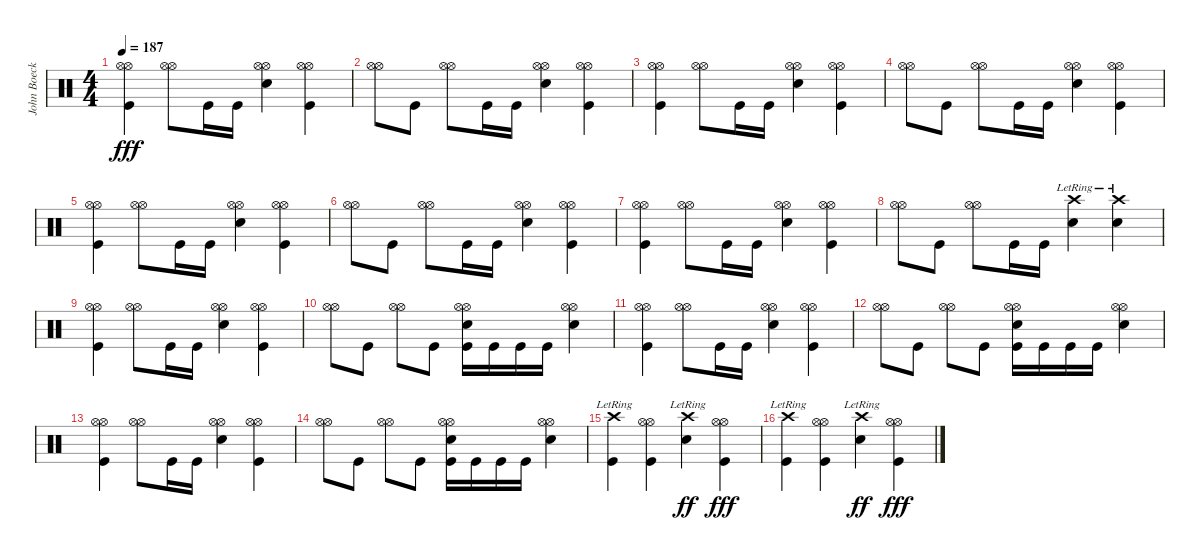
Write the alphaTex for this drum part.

\track ("John Boecklin - Drums" "John Boeck") {instrument percussion}
\staff {score}
\articulation defaults
\ts (4 4)
\tempo 187
\clef neutral
\ks c
("Hi-Hat (open)" "Hi-Hat (open)" "Kick (hit)").4{dy fff} ("Hi-Hat (open)" "Hi-Hat (open)").8 "Kick (hit)".16 "Kick (hit)".16 ("Snare (hit) 2" "Hi-Hat (open)" "Hi-Hat (open)").4 ("Hi-Hat (open)" "Hi-Hat (open)" "Kick (hit)").4 |
("Hi-Hat (open)" "Hi-Hat (open)").8 "Kick (hit)".8 ("Hi-Hat (open)" "Hi-Hat (open)").8 "Kick (hit)".16 "Kick (hit)".16 ("Snare (hit) 2" "Hi-Hat (open)" "Hi-Hat (open)").4 ("Hi-Hat (open)" "Hi-Hat (open)" "Kick (hit)").4 |
("Hi-Hat (open)" "Hi-Hat (open)" "Kick (hit)").4 ("Hi-Hat (open)" "Hi-Hat (open)").8 "Kick (hit)".16 "Kick (hit)".16 ("Snare (hit) 2" "Hi-Hat (open)" "Hi-Hat (open)").4 ("Hi-Hat (open)" "Hi-Hat (open)" "Kick (hit)").4 |
("Hi-Hat (open)" "Hi-Hat (open)").8 "Kick (hit)".8 ("Hi-Hat (open)" "Hi-Hat (open)").8 "Kick (hit)".16 "Kick (hit)".16 ("Snare (hit) 2" "Hi-Hat (open)" "Hi-Hat (open)").4 ("Hi-Hat (open)" "Hi-Hat (open)" "Kick (hit)").4 |
("Hi-Hat (open)" "Hi-Hat (open)" "Kick (hit)").4 ("Hi-Hat (open)" "Hi-Hat (open)").8 "Kick (hit)".16 "Kick (hit)".16 ("Snare (hit) 2" "Hi-Hat (open)" "Hi-Hat (open)").4 ("Hi-Hat (open)" "Hi-Hat (open)" "Kick (hit)").4 |
("Hi-Hat (open)" "Hi-Hat (open)").8 "Kick (hit)".8 ("Hi-Hat (open)" "Hi-Hat (open)").8 "Kick (hit)".16 "Kick (hit)".16 ("Snare (hit) 2" "Hi-Hat (open)" "Hi-Hat (open)").4 ("Hi-Hat (open)" "Hi-Hat (open)" "Kick (hit)").4 |
("Hi-Hat (open)" "Hi-Hat (open)" "Kick (hit)").4 ("Hi-Hat (open)" "Hi-Hat (open)").8 "Kick (hit)".16 "Kick (hit)".16 ("Snare (hit) 2" "Hi-Hat (open)" "Hi-Hat (open)").4 ("Hi-Hat (open)" "Hi-Hat (open)" "Kick (hit)").4 |
("Hi-Hat (open)" "Hi-Hat (open)").8 "Kick (hit)".8 ("Hi-Hat (open)" "Hi-Hat (open)").8 "Kick (hit)".16 "Kick (hit)".16 ("Snare (hit) 2" "Crash high (hit)"{lr}).4 ("Snare (hit) 2" "Crash high (hit)"{lr}).4 |
("Hi-Hat (open)" "Hi-Hat (open)" "Kick (hit)").4 ("Hi-Hat (open)" "Hi-Hat (open)").8 "Kick (hit)".16 "Kick (hit)".16 ("Snare (hit) 2" "Hi-Hat (open)" "Hi-Hat (open)").4 ("Hi-Hat (open)" "Hi-Hat (open)" "Kick (hit)").4 |
("Hi-Hat (open)" "Hi-Hat (open)").8 "Kick (hit)".8 ("Hi-Hat (open)" "Hi-Hat (open)").8 "Kick (hit)".8 ("Snare (hit) 2" "Hi-Hat (open)" "Hi-Hat (open)" "Kick (hit)").16 "Kick (hit)".16 "Kick (hit)".16 "Kick (hit)".16 ("Snare (hit) 2" "Hi-Hat (open)" "Hi-Hat (open)").4 |
("Hi-Hat (open)" "Hi-Hat (open)" "Kick (hit)").4 ("Hi-Hat (open)" "Hi-Hat (open)").8 "Kick (hit)".16 "Kick (hit)".16 ("Snare (hit) 2" "Hi-Hat (open)" "Hi-Hat (open)").4 ("Hi-Hat (open)" "Hi-Hat (open)" "Kick (hit)").4 |
("Hi-Hat (open)" "Hi-Hat (open)").8 "Kick (hit)".8 ("Hi-Hat (open)" "Hi-Hat (open)").8 "Kick (hit)".8 ("Snare (hit) 2" "Hi-Hat (open)" "Hi-Hat (open)" "Kick (hit)").16 "Kick (hit)".16 "Kick (hit)".16 "Kick (hit)".16 ("Snare (hit) 2" "Hi-Hat (open)" "Hi-Hat (open)").4 |
("Hi-Hat (open)" "Hi-Hat (open)" "Kick (hit)").4 ("Hi-Hat (open)" "Hi-Hat (open)").8 "Kick (hit)".16 "Kick (hit)".16 ("Snare (hit) 2" "Hi-Hat (open)" "Hi-Hat (open)").4 ("Hi-Hat (open)" "Hi-Hat (open)" "Kick (hit)").4 |
("Hi-Hat (open)" "Hi-Hat (open)").8 "Kick (hit)".8 ("Hi-Hat (open)" "Hi-Hat (open)").8 "Kick (hit)".8 ("Snare (hit) 2" "Hi-Hat (open)" "Hi-Hat (open)" "Kick (hit)").16 "Kick (hit)".16 "Kick (hit)".16 "Kick (hit)".16 ("Snare (hit) 2" "Hi-Hat (open)" "Hi-Hat (open)").4 |
("Crash high (hit)"{lr} "Kick (hit)").4 ("Hi-Hat (open)" "Hi-Hat (open)" "Kick (hit)").4 ("Snare (hit) 2" "Crash high (hit)"{lr}).4{dy ff} ("Hi-Hat (open)" "Hi-Hat (open)" "Kick (hit)").4{dy fff} |
("Crash high (hit)"{lr} "Kick (hit)").4 ("Hi-Hat (open)" "Hi-Hat (open)" "Kick (hit)").4 ("Snare (hit) 2" "Crash high (hit)"{lr}).4{dy ff} ("Hi-Hat (open)" "Hi-Hat (open)" "Kick (hit)").4{dy fff}
